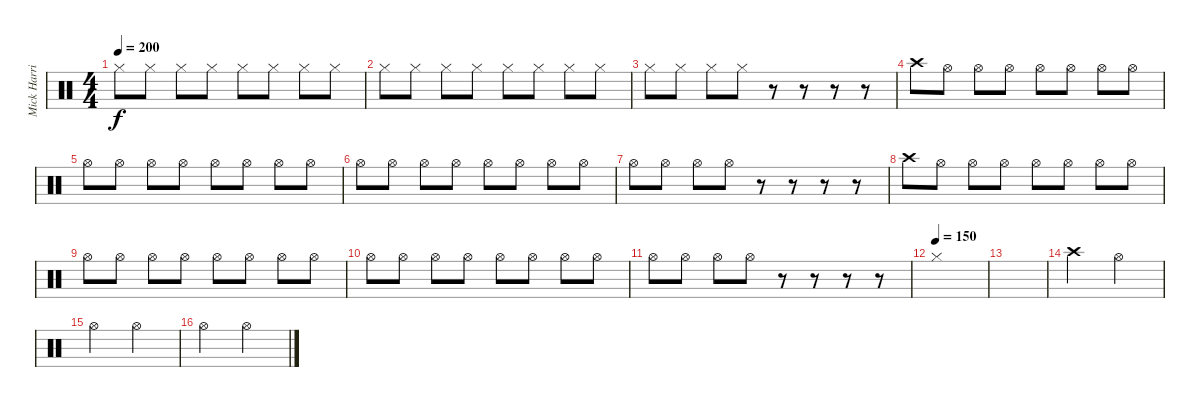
\track ("Mick Harris" "Mick Harri") {instrument percussion}
\staff {score}
\articulation defaults
\ts (4 4)
\tempo 200
\clef neutral
\ks c "Hi-Hat (closed)".8{dy f} "Hi-Hat (closed)".8 "Hi-Hat (closed)".8 "Hi-Hat (closed)".8 "Hi-Hat (closed)".8 "Hi-Hat (closed)".8 "Hi-Hat (closed)".8 "Hi-Hat (closed)".8
|
"Hi-Hat (closed)".8 "Hi-Hat (closed)".8 "Hi-Hat (closed)".8 "Hi-Hat (closed)".8 "Hi-Hat (closed)".8 "Hi-Hat (closed)".8 "Hi-Hat (closed)".8 "Hi-Hat (closed)".8 |
"Hi-Hat (closed)".8 "Hi-Hat (closed)".8 "Hi-Hat (closed)".8 "Hi-Hat (closed)".8 r.8 r.8 r.8 r.8 |
"Crash high (hit)".8 "Hi-Hat (open)".8 "Hi-Hat (open)".8 "Hi-Hat (open)".8 "Hi-Hat (open)".8 "Hi-Hat (open)".8 "Hi-Hat (open)".8 "Hi-Hat (open)".8 |
"Hi-Hat (open)".8 "Hi-Hat (open)".8 "Hi-Hat (open)".8 "Hi-Hat (open)".8 "Hi-Hat (open)".8 "Hi-Hat (open)".8 "Hi-Hat (open)".8 "Hi-Hat (open)".8 |
"Hi-Hat (open)".8 "Hi-Hat (open)".8 "Hi-Hat (open)".8 "Hi-Hat (open)".8 "Hi-Hat (open)".8 "Hi-Hat (open)".8 "Hi-Hat (open)".8 "Hi-Hat (open)".8 |
"Hi-Hat (open)".8 "Hi-Hat (open)".8 "Hi-Hat (open)".8 "Hi-Hat (open)".8 r.8 r.8 r.8 r.8 |
"Crash high (hit)".8 "Hi-Hat (open)".8 "Hi-Hat (open)".8 "Hi-Hat (open)".8 "Hi-Hat (open)".8 "Hi-Hat (open)".8 "Hi-Hat (open)".8 "Hi-Hat (open)".8 |
"Hi-Hat (open)".8 "Hi-Hat (open)".8 "Hi-Hat (open)".8 "Hi-Hat (open)".8 "Hi-Hat (open)".8 "Hi-Hat (open)".8 "Hi-Hat (open)".8 "Hi-Hat (open)".8 |
"Hi-Hat (open)".8 "Hi-Hat (open)".8 "Hi-Hat (open)".8 "Hi-Hat (open)".8 "Hi-Hat (open)".8 "Hi-Hat (open)".8 "Hi-Hat (open)".8 "Hi-Hat (open)".8 |
"Hi-Hat (open)".8 "Hi-Hat (open)".8 "Hi-Hat (open)".8 "Hi-Hat (open)".8 r.8 r.8 r.8 r.8 |
\tempo (150)
"Hi-Hat (closed)".1 |
|
"Crash high (hit)".2 "Hi-Hat (open)".2 |
"Hi-Hat (open)".2 "Hi-Hat (open)".2 |
"Hi-Hat (open)".2 "Hi-Hat (open)".2
